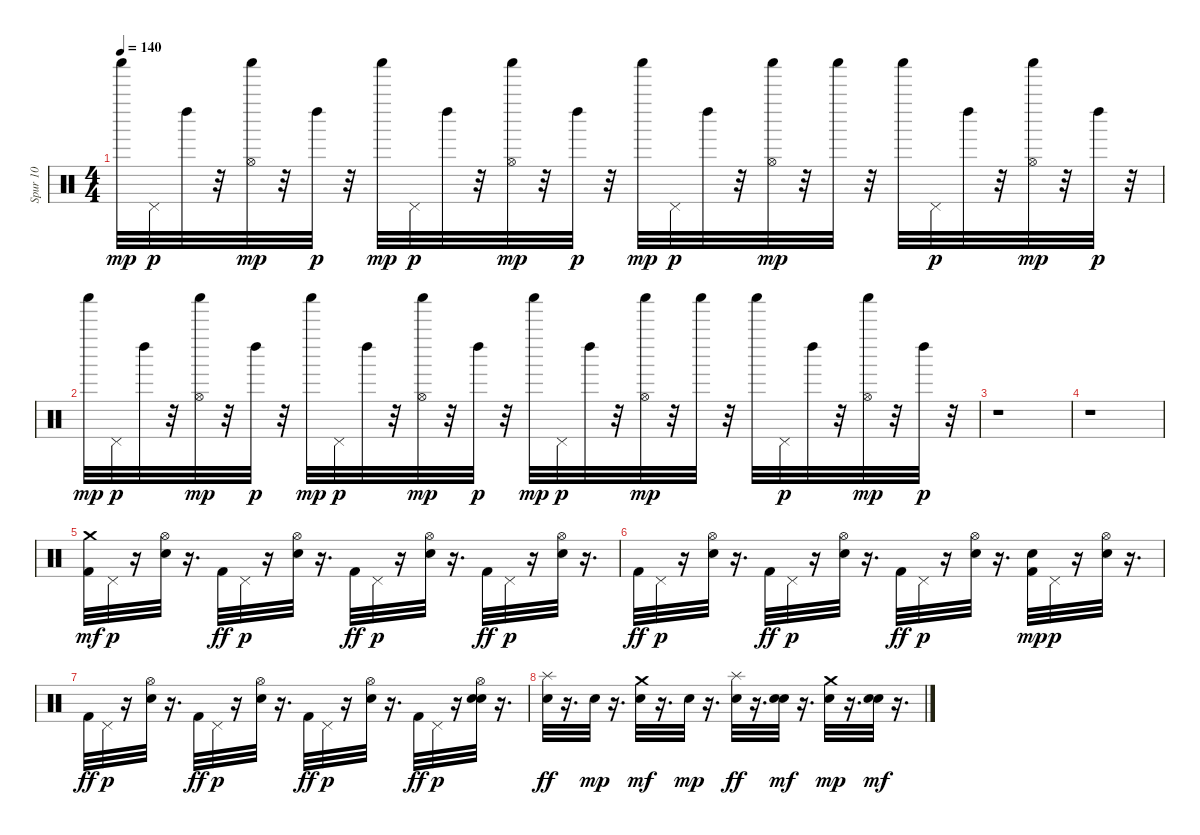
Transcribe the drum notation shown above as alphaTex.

\track ("Spur 10" "Spur 10") {instrument percussion}
\staff {score}
\articulation defaults
\ts (4 4)
\tempo 140
\clef neutral
\ks c "Shaker (hit)".32{dy mp} "Pedal Hi-Hat (hit)".32{dy p} "Left Maraca (hit)".32
r.32 ("Hi-Hat (open)" "Shaker (hit)").32{dy mp} r.32 "Left Maraca (hit)".32{dy p} r.32 "Shaker (hit)".32{dy mp} "Pedal Hi-Hat (hit)".32{dy p} "Left Maraca (hit)".32 r.32 ("Hi-Hat (open)" "Shaker (hit)").32{dy mp} r.32 "Left Maraca (hit)".32{dy p} r.32 "Shaker (hit)".32{dy mp} "Pedal Hi-Hat (hit)".32{dy p} "Left Maraca (hit)".32 r.32 ("Hi-Hat (open)" "Shaker (hit)").32{dy mp} r.32 "Shaker (hit)".32 r.32 "Shaker (hit)".32 "Pedal Hi-Hat (hit)".32{dy p} "Left Maraca (hit)".32 r.32 ("Hi-Hat (open)" "Shaker (hit)").32{dy mp} r.32 "Left Maraca (hit)".32{dy p} r.32 |
"Shaker (hit)".32{dy mp} "Pedal Hi-Hat (hit)".32{dy p} "Left Maraca (hit)".32 r.32 ("Hi-Hat (open)" "Shaker (hit)").32{dy mp} r.32 "Left Maraca (hit)".32{dy p} r.32 "Shaker (hit)".32{dy mp} "Pedal Hi-Hat (hit)".32{dy p} "Left Maraca (hit)".32 r.32 ("Hi-Hat (open)" "Shaker (hit)").32{dy mp} r.32 "Left Maraca (hit)".32{dy p} r.32 "Shaker (hit)".32{dy mp} "Pedal Hi-Hat (hit)".32{dy p} "Left Maraca (hit)".32 r.32 ("Hi-Hat (open)" "Shaker (hit)").32{dy mp} r.32 "Shaker (hit)".32 r.32 "Shaker (hit)".32 "Pedal Hi-Hat (hit)".32{dy p} "Left Maraca (hit)".32 r.32 ("Hi-Hat (open)" "Shaker (hit)").32{dy mp} r.32 "Left Maraca (hit)".32{dy p} r.32 |
r.1 |
r.1 |
("Kick (hit) 2" "Crash medium (hit)").32{dy mf} "Pedal Hi-Hat (hit)".32{dy p} r.16 ("Hand Clap (hit)" "Hi-Hat (open)").32 r.16{d} "Kick (hit) 2".32{dy ff} "Pedal Hi-Hat (hit)".32{dy p} r.16 ("Hand Clap (hit)" "Hi-Hat (open)").32 r.16{d} "Kick (hit) 2".32{dy ff} "Pedal Hi-Hat (hit)".32{dy p} r.16 ("Hand Clap (hit)" "Hi-Hat (open)").32 r.16{d} "Kick (hit) 2".32{dy ff} "Pedal Hi-Hat (hit)".32{dy p} r.16 ("Hand Clap (hit)" "Hi-Hat (open)").32 r.16{d} |
"Kick (hit) 2".32{dy ff} "Pedal Hi-Hat (hit)".32{dy p} r.16 ("Hand Clap (hit)" "Hi-Hat (open)").32 r.16{d} "Kick (hit) 2".32{dy ff} "Pedal Hi-Hat (hit)".32{dy p} r.16 ("Hand Clap (hit)" "Hi-Hat (open)").32 r.16{d} "Kick (hit) 2".32{dy ff} "Pedal Hi-Hat (hit)".32{dy p} r.16 ("Hand Clap (hit)" "Hi-Hat (open)").32 r.16{d} ("Kick (hit) 2" "Hand Clap (hit)").32{dy mp} "Pedal Hi-Hat (hit)".32{dy p} r.16 ("Hand Clap (hit)" "Hi-Hat (open)").32 r.16{d} |
"Kick (hit) 2".32{dy ff} "Pedal Hi-Hat (hit)".32{dy p} r.16 ("Hand Clap (hit)" "Hi-Hat (open)").32 r.16{d} "Kick (hit) 2".32{dy ff} "Pedal Hi-Hat (hit)".32{dy p} r.16 ("Hand Clap (hit)" "Hi-Hat (open)").32 r.16{d} "Kick (hit) 2".32{dy ff} "Pedal Hi-Hat (hit)".32{dy p} r.16 ("Hand Clap (hit)" "Hi-Hat (open)").32 r.16{d} "Kick (hit) 2".32{dy ff} "Pedal Hi-Hat (hit)".32{dy p} r.16 ("Hand Clap (hit)" "Electric Snare (hit)" "Hi-Hat (open)").32 r.16{d} |
("Electric Snare (hit)" "Splash (hit)").32{dy ff} r.16{d} "Hand Clap (hit)".32{dy mp} r.16{d} ("Electric Snare (hit)" "Crash medium (hit)").32{dy mf} r.16{d} "Hand Clap (hit)".32{dy mp} r.16{d} ("Electric Snare (hit)" "Splash (hit)").32{dy ff} r.16{d} ("Hand Clap (hit)" "Electric Snare (hit)").32{dy mf} r.16{d} ("Hand Clap (hit)" "Crash medium (hit)").32{dy mp} r.16{d} ("Hand Clap (hit)" "Electric Snare (hit)").32{dy mf} r.16{d}
